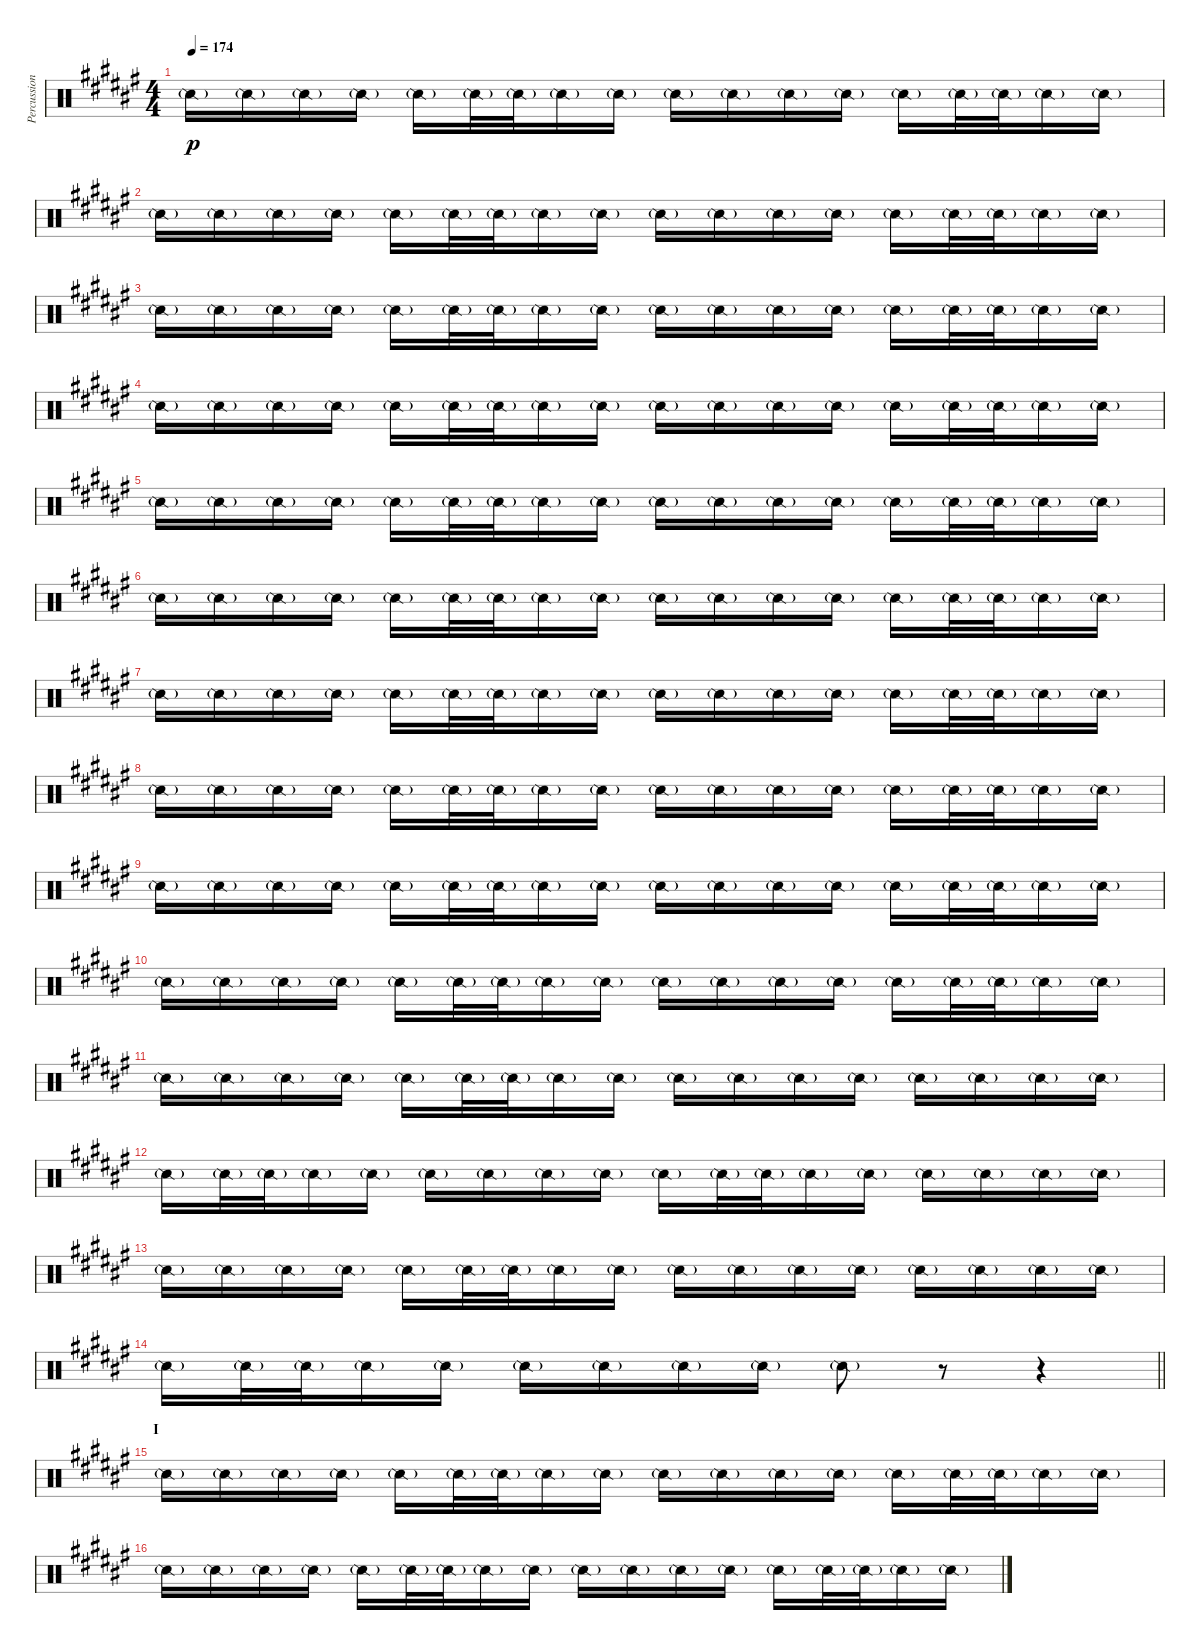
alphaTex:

\track ("Percussion I" "Percussion") {instrument percussion}
\staff {score}
\articulation defaults
\ts (4 4)
\tempo 174
\clef neutral
\ks f# "Snare (side stick) 2"{g}.16{dy p} "Snare (side stick) 2"{g}.16 "Snare (side stick) 2"{g}.16 "Snare (side stick) 2"{g}.16 "Snare (side stick) 2"{g}.16 "Snare (side stick) 2"{g}.32 "Snare (side stick) 2"{g}.32 "Snare (side stick) 2"{g}.16 "Snare (side stick) 2"{g}.16 "Snare (side stick) 2"{g}.16 "Snare (side stick) 2"{g}.16 "Snare (side stick) 2"{g}.16 "Snare (side stick) 2"{g}.16 "Snare (side stick) 2"{g}.16 "Snare (side stick) 2"{g}.32 "Snare (side stick) 2"{g}.32 "Snare (side stick) 2"{g}.16 "Snare (side stick) 2"{g}.16
|
"Snare (side stick) 2"{g}.16 "Snare (side stick) 2"{g}.16 "Snare (side stick) 2"{g}.16 "Snare (side stick) 2"{g}.16 "Snare (side stick) 2"{g}.16 "Snare (side stick) 2"{g}.32 "Snare (side stick) 2"{g}.32 "Snare (side stick) 2"{g}.16 "Snare (side stick) 2"{g}.16 "Snare (side stick) 2"{g}.16 "Snare (side stick) 2"{g}.16 "Snare (side stick) 2"{g}.16 "Snare (side stick) 2"{g}.16 "Snare (side stick) 2"{g}.16 "Snare (side stick) 2"{g}.32 "Snare (side stick) 2"{g}.32 "Snare (side stick) 2"{g}.16 "Snare (side stick) 2"{g}.16 |
"Snare (side stick) 2"{g}.16 "Snare (side stick) 2"{g}.16 "Snare (side stick) 2"{g}.16 "Snare (side stick) 2"{g}.16 "Snare (side stick) 2"{g}.16 "Snare (side stick) 2"{g}.32 "Snare (side stick) 2"{g}.32 "Snare (side stick) 2"{g}.16 "Snare (side stick) 2"{g}.16 "Snare (side stick) 2"{g}.16 "Snare (side stick) 2"{g}.16 "Snare (side stick) 2"{g}.16 "Snare (side stick) 2"{g}.16 "Snare (side stick) 2"{g}.16 "Snare (side stick) 2"{g}.32 "Snare (side stick) 2"{g}.32 "Snare (side stick) 2"{g}.16 "Snare (side stick) 2"{g}.16 |
"Snare (side stick) 2"{g}.16 "Snare (side stick) 2"{g}.16 "Snare (side stick) 2"{g}.16 "Snare (side stick) 2"{g}.16 "Snare (side stick) 2"{g}.16 "Snare (side stick) 2"{g}.32 "Snare (side stick) 2"{g}.32 "Snare (side stick) 2"{g}.16 "Snare (side stick) 2"{g}.16 "Snare (side stick) 2"{g}.16 "Snare (side stick) 2"{g}.16 "Snare (side stick) 2"{g}.16 "Snare (side stick) 2"{g}.16 "Snare (side stick) 2"{g}.16 "Snare (side stick) 2"{g}.32 "Snare (side stick) 2"{g}.32 "Snare (side stick) 2"{g}.16 "Snare (side stick) 2"{g}.16 |
"Snare (side stick) 2"{g}.16 "Snare (side stick) 2"{g}.16 "Snare (side stick) 2"{g}.16 "Snare (side stick) 2"{g}.16 "Snare (side stick) 2"{g}.16 "Snare (side stick) 2"{g}.32 "Snare (side stick) 2"{g}.32 "Snare (side stick) 2"{g}.16 "Snare (side stick) 2"{g}.16 "Snare (side stick) 2"{g}.16 "Snare (side stick) 2"{g}.16 "Snare (side stick) 2"{g}.16 "Snare (side stick) 2"{g}.16 "Snare (side stick) 2"{g}.16 "Snare (side stick) 2"{g}.32 "Snare (side stick) 2"{g}.32 "Snare (side stick) 2"{g}.16 "Snare (side stick) 2"{g}.16 |
"Snare (side stick) 2"{g}.16 "Snare (side stick) 2"{g}.16 "Snare (side stick) 2"{g}.16 "Snare (side stick) 2"{g}.16 "Snare (side stick) 2"{g}.16 "Snare (side stick) 2"{g}.32 "Snare (side stick) 2"{g}.32 "Snare (side stick) 2"{g}.16 "Snare (side stick) 2"{g}.16 "Snare (side stick) 2"{g}.16 "Snare (side stick) 2"{g}.16 "Snare (side stick) 2"{g}.16 "Snare (side stick) 2"{g}.16 "Snare (side stick) 2"{g}.16 "Snare (side stick) 2"{g}.32 "Snare (side stick) 2"{g}.32 "Snare (side stick) 2"{g}.16 "Snare (side stick) 2"{g}.16 |
"Snare (side stick) 2"{g}.16 "Snare (side stick) 2"{g}.16 "Snare (side stick) 2"{g}.16 "Snare (side stick) 2"{g}.16 "Snare (side stick) 2"{g}.16 "Snare (side stick) 2"{g}.32 "Snare (side stick) 2"{g}.32 "Snare (side stick) 2"{g}.16 "Snare (side stick) 2"{g}.16 "Snare (side stick) 2"{g}.16 "Snare (side stick) 2"{g}.16 "Snare (side stick) 2"{g}.16 "Snare (side stick) 2"{g}.16 "Snare (side stick) 2"{g}.16 "Snare (side stick) 2"{g}.32 "Snare (side stick) 2"{g}.32 "Snare (side stick) 2"{g}.16 "Snare (side stick) 2"{g}.16 |
"Snare (side stick) 2"{g}.16 "Snare (side stick) 2"{g}.16 "Snare (side stick) 2"{g}.16 "Snare (side stick) 2"{g}.16 "Snare (side stick) 2"{g}.16 "Snare (side stick) 2"{g}.32 "Snare (side stick) 2"{g}.32 "Snare (side stick) 2"{g}.16 "Snare (side stick) 2"{g}.16 "Snare (side stick) 2"{g}.16 "Snare (side stick) 2"{g}.16 "Snare (side stick) 2"{g}.16 "Snare (side stick) 2"{g}.16 "Snare (side stick) 2"{g}.16 "Snare (side stick) 2"{g}.32 "Snare (side stick) 2"{g}.32 "Snare (side stick) 2"{g}.16 "Snare (side stick) 2"{g}.16 |
"Snare (side stick) 2"{g}.16 "Snare (side stick) 2"{g}.16 "Snare (side stick) 2"{g}.16 "Snare (side stick) 2"{g}.16 "Snare (side stick) 2"{g}.16 "Snare (side stick) 2"{g}.32 "Snare (side stick) 2"{g}.32 "Snare (side stick) 2"{g}.16 "Snare (side stick) 2"{g}.16 "Snare (side stick) 2"{g}.16 "Snare (side stick) 2"{g}.16 "Snare (side stick) 2"{g}.16 "Snare (side stick) 2"{g}.16 "Snare (side stick) 2"{g}.16 "Snare (side stick) 2"{g}.32 "Snare (side stick) 2"{g}.32 "Snare (side stick) 2"{g}.16 "Snare (side stick) 2"{g}.16 |
"Snare (side stick) 2"{g}.16 "Snare (side stick) 2"{g}.16 "Snare (side stick) 2"{g}.16 "Snare (side stick) 2"{g}.16 "Snare (side stick) 2"{g}.16 "Snare (side stick) 2"{g}.32 "Snare (side stick) 2"{g}.32 "Snare (side stick) 2"{g}.16 "Snare (side stick) 2"{g}.16 "Snare (side stick) 2"{g}.16 "Snare (side stick) 2"{g}.16 "Snare (side stick) 2"{g}.16 "Snare (side stick) 2"{g}.16 "Snare (side stick) 2"{g}.16 "Snare (side stick) 2"{g}.32 "Snare (side stick) 2"{g}.32 "Snare (side stick) 2"{g}.16 "Snare (side stick) 2"{g}.16 |
"Snare (side stick) 2"{g}.16 "Snare (side stick) 2"{g}.16 "Snare (side stick) 2"{g}.16 "Snare (side stick) 2"{g}.16 "Snare (side stick) 2"{g}.16 "Snare (side stick) 2"{g}.32 "Snare (side stick) 2"{g}.32 "Snare (side stick) 2"{g}.16 "Snare (side stick) 2"{g}.16 "Snare (side stick) 2"{g}.16 "Snare (side stick) 2"{g}.16 "Snare (side stick) 2"{g}.16 "Snare (side stick) 2"{g}.16 "Snare (side stick) 2"{g}.16 "Snare (side stick) 2"{g}.16 "Snare (side stick) 2"{g}.16 "Snare (side stick) 2"{g}.16 |
"Snare (side stick) 2"{g}.16 "Snare (side stick) 2"{g}.32 "Snare (side stick) 2"{g}.32 "Snare (side stick) 2"{g}.16 "Snare (side stick) 2"{g}.16 "Snare (side stick) 2"{g}.16 "Snare (side stick) 2"{g}.16 "Snare (side stick) 2"{g}.16 "Snare (side stick) 2"{g}.16 "Snare (side stick) 2"{g}.16 "Snare (side stick) 2"{g}.32 "Snare (side stick) 2"{g}.32 "Snare (side stick) 2"{g}.16 "Snare (side stick) 2"{g}.16 "Snare (side stick) 2"{g}.16 "Snare (side stick) 2"{g}.16 "Snare (side stick) 2"{g}.16 "Snare (side stick) 2"{g}.16 |
"Snare (side stick) 2"{g}.16 "Snare (side stick) 2"{g}.16 "Snare (side stick) 2"{g}.16 "Snare (side stick) 2"{g}.16 "Snare (side stick) 2"{g}.16 "Snare (side stick) 2"{g}.32 "Snare (side stick) 2"{g}.32 "Snare (side stick) 2"{g}.16 "Snare (side stick) 2"{g}.16 "Snare (side stick) 2"{g}.16 "Snare (side stick) 2"{g}.16 "Snare (side stick) 2"{g}.16 "Snare (side stick) 2"{g}.16 "Snare (side stick) 2"{g}.16 "Snare (side stick) 2"{g}.16 "Snare (side stick) 2"{g}.16 "Snare (side stick) 2"{g}.16 |
\barLineRight lightlight "Snare (side stick) 2"{g}.16 "Snare (side stick) 2"{g}.32 "Snare (side stick) 2"{g}.32 "Snare (side stick) 2"{g}.16 "Snare (side stick) 2"{g}.16 "Snare (side stick) 2"{g}.16 "Snare (side stick) 2"{g}.16 "Snare (side stick) 2"{g}.16 "Snare (side stick) 2"{g}.16 "Snare (side stick) 2"{g}.8
r.8 r.4 |
\section ("" "I")
"Snare (side stick) 2"{g}.16 "Snare (side stick) 2"{g}.16 "Snare (side stick) 2"{g}.16 "Snare (side stick) 2"{g}.16 "Snare (side stick) 2"{g}.16 "Snare (side stick) 2"{g}.32 "Snare (side stick) 2"{g}.32 "Snare (side stick) 2"{g}.16 "Snare (side stick) 2"{g}.16 "Snare (side stick) 2"{g}.16 "Snare (side stick) 2"{g}.16 "Snare (side stick) 2"{g}.16 "Snare (side stick) 2"{g}.16 "Snare (side stick) 2"{g}.16 "Snare (side stick) 2"{g}.32 "Snare (side stick) 2"{g}.32 "Snare (side stick) 2"{g}.16 "Snare (side stick) 2"{g}.16 |
"Snare (side stick) 2"{g}.16 "Snare (side stick) 2"{g}.16 "Snare (side stick) 2"{g}.16 "Snare (side stick) 2"{g}.16 "Snare (side stick) 2"{g}.16 "Snare (side stick) 2"{g}.32 "Snare (side stick) 2"{g}.32 "Snare (side stick) 2"{g}.16 "Snare (side stick) 2"{g}.16 "Snare (side stick) 2"{g}.16 "Snare (side stick) 2"{g}.16 "Snare (side stick) 2"{g}.16 "Snare (side stick) 2"{g}.16 "Snare (side stick) 2"{g}.16 "Snare (side stick) 2"{g}.32 "Snare (side stick) 2"{g}.32 "Snare (side stick) 2"{g}.16 "Snare (side stick) 2"{g}.16
